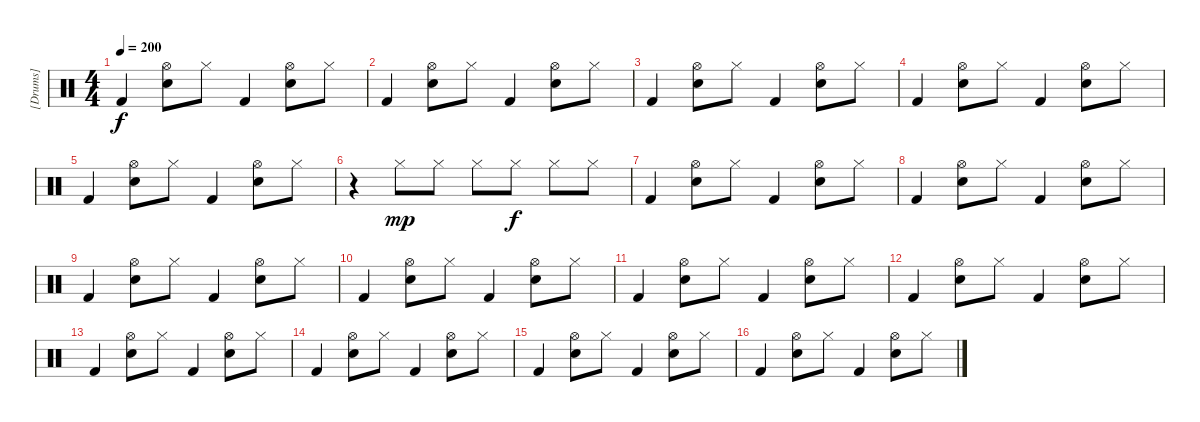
\track ("[Drums]" "[Drums]") {instrument percussion}
\staff {score}
\articulation defaults
\ts (4 4)
\tempo 200
\clef neutral
\ks c "Kick (hit) 2".4{dy f}
("Hi-Hat (open)" "Electric Snare (hit)").8 "Hi-Hat (closed)".8 "Kick (hit) 2".4 ("Hi-Hat (open)" "Electric Snare (hit)").8 "Hi-Hat (closed)".8 |
"Kick (hit) 2".4 ("Hi-Hat (open)" "Electric Snare (hit)").8 "Hi-Hat (closed)".8 "Kick (hit) 2".4 ("Hi-Hat (open)" "Electric Snare (hit)").8 "Hi-Hat (closed)".8 |
"Kick (hit) 2".4 ("Hi-Hat (open)" "Electric Snare (hit)").8 "Hi-Hat (closed)".8 "Kick (hit) 2".4 ("Hi-Hat (open)" "Electric Snare (hit)").8 "Hi-Hat (closed)".8 |
"Kick (hit) 2".4 ("Hi-Hat (open)" "Electric Snare (hit)").8 "Hi-Hat (closed)".8 "Kick (hit) 2".4 ("Hi-Hat (open)" "Electric Snare (hit)").8 "Hi-Hat (closed)".8 |
"Kick (hit) 2".4 ("Hi-Hat (open)" "Electric Snare (hit)").8 "Hi-Hat (closed)".8 "Kick (hit) 2".4 ("Hi-Hat (open)" "Electric Snare (hit)").8 "Hi-Hat (closed)".8 |
r.4 "Hi-Hat (closed)".8{dy mp} "Hi-Hat (closed)".8 "Hi-Hat (closed)".8 "Hi-Hat (closed)".8{dy f} "Hi-Hat (closed)".8 "Hi-Hat (closed)".8 |
"Kick (hit) 2".4 ("Hi-Hat (open)" "Electric Snare (hit)").8 "Hi-Hat (closed)".8 "Kick (hit) 2".4 ("Hi-Hat (open)" "Electric Snare (hit)").8 "Hi-Hat (closed)".8 |
"Kick (hit) 2".4 ("Hi-Hat (open)" "Electric Snare (hit)").8 "Hi-Hat (closed)".8 "Kick (hit) 2".4 ("Hi-Hat (open)" "Electric Snare (hit)").8 "Hi-Hat (closed)".8 |
"Kick (hit) 2".4 ("Hi-Hat (open)" "Electric Snare (hit)").8 "Hi-Hat (closed)".8 "Kick (hit) 2".4 ("Hi-Hat (open)" "Electric Snare (hit)").8 "Hi-Hat (closed)".8 |
"Kick (hit) 2".4 ("Hi-Hat (open)" "Electric Snare (hit)").8 "Hi-Hat (closed)".8 "Kick (hit) 2".4 ("Hi-Hat (open)" "Electric Snare (hit)").8 "Hi-Hat (closed)".8 |
"Kick (hit) 2".4 ("Hi-Hat (open)" "Electric Snare (hit)").8 "Hi-Hat (closed)".8 "Kick (hit) 2".4 ("Hi-Hat (open)" "Electric Snare (hit)").8 "Hi-Hat (closed)".8 |
"Kick (hit) 2".4 ("Hi-Hat (open)" "Electric Snare (hit)").8 "Hi-Hat (closed)".8 "Kick (hit) 2".4 ("Hi-Hat (open)" "Electric Snare (hit)").8 "Hi-Hat (closed)".8 |
"Kick (hit) 2".4 ("Hi-Hat (open)" "Electric Snare (hit)").8 "Hi-Hat (closed)".8 "Kick (hit) 2".4 ("Hi-Hat (open)" "Electric Snare (hit)").8 "Hi-Hat (closed)".8 |
"Kick (hit) 2".4 ("Hi-Hat (open)" "Electric Snare (hit)").8 "Hi-Hat (closed)".8 "Kick (hit) 2".4 ("Hi-Hat (open)" "Electric Snare (hit)").8 "Hi-Hat (closed)".8 |
"Kick (hit) 2".4 ("Hi-Hat (open)" "Electric Snare (hit)").8 "Hi-Hat (closed)".8 "Kick (hit) 2".4 ("Hi-Hat (open)" "Electric Snare (hit)").8 "Hi-Hat (closed)".8 |
"Kick (hit) 2".4 ("Hi-Hat (open)" "Electric Snare (hit)").8 "Hi-Hat (closed)".8 "Kick (hit) 2".4 ("Hi-Hat (open)" "Electric Snare (hit)").8 "Hi-Hat (closed)".8
